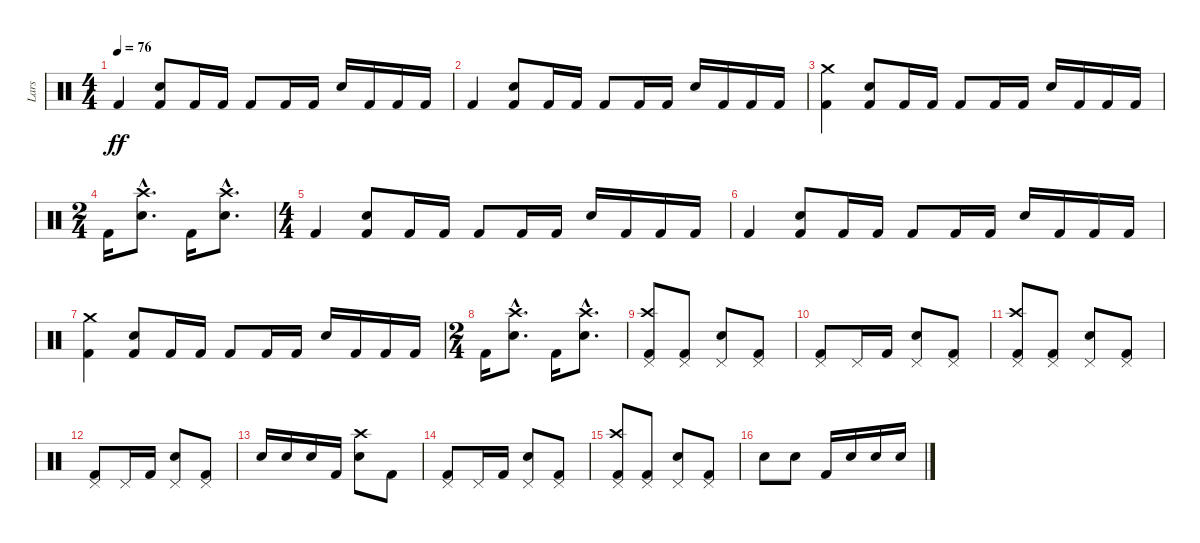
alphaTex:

\track ("Lars" "Lars") {instrument percussion}
\staff {score}
\articulation defaults
\ts (4 4)
\tempo 76
\clef neutral
\ks c "Kick (hit) 2".4{dy ff}
("Snare (hit) 2" "Kick (hit) 2").8 "Kick (hit) 2".16 "Kick (hit) 2".16 "Kick (hit) 2".8 "Kick (hit) 2".16 "Kick (hit) 2".16 "Snare (hit) 2".16 "Kick (hit) 2".16 "Kick (hit) 2".16 "Kick (hit) 2".16 |
"Kick (hit) 2".4 ("Snare (hit) 2" "Kick (hit) 2").8 "Kick (hit) 2".16 "Kick (hit) 2".16 "Kick (hit) 2".8 "Kick (hit) 2".16 "Kick (hit) 2".16 "Snare (hit) 2".16 "Kick (hit) 2".16 "Kick (hit) 2".16 "Kick (hit) 2".16 |
("Crash medium (hit)" "Kick (hit) 2").4 ("Snare (hit) 2" "Kick (hit) 2").8 "Kick (hit) 2".16 "Kick (hit) 2".16 "Kick (hit) 2".8 "Kick (hit) 2".16 "Kick (hit) 2".16 "Snare (hit) 2".16 "Kick (hit) 2".16 "Kick (hit) 2".16 "Kick (hit) 2".16 |
\ts (2 4)
"Kick (hit) 2".16 ("Crash high (hit)"{hac} "Snare (hit) 2"{hac}).8{d} "Kick (hit) 2".16 ("Crash high (hit)"{hac} "Snare (hit) 2"{hac}).8{d} |
\ts (4 4)
"Kick (hit) 2".4 ("Snare (hit) 2" "Kick (hit) 2").8 "Kick (hit) 2".16 "Kick (hit) 2".16 "Kick (hit) 2".8 "Kick (hit) 2".16 "Kick (hit) 2".16 "Snare (hit) 2".16 "Kick (hit) 2".16 "Kick (hit) 2".16 "Kick (hit) 2".16 |
"Kick (hit) 2".4 ("Snare (hit) 2" "Kick (hit) 2").8 "Kick (hit) 2".16 "Kick (hit) 2".16 "Kick (hit) 2".8 "Kick (hit) 2".16 "Kick (hit) 2".16 "Snare (hit) 2".16 "Kick (hit) 2".16 "Kick (hit) 2".16 "Kick (hit) 2".16 |
("Crash medium (hit)" "Kick (hit) 2").4 ("Snare (hit) 2" "Kick (hit) 2").8 "Kick (hit) 2".16 "Kick (hit) 2".16 "Kick (hit) 2".8 "Kick (hit) 2".16 "Kick (hit) 2".16 "Snare (hit) 2".16 "Kick (hit) 2".16 "Kick (hit) 2".16 "Kick (hit) 2".16 |
\ts (2 4)
"Kick (hit) 2".16 ("Crash high (hit)"{hac} "Snare (hit) 2"{hac}).8{d} "Kick (hit) 2".16 ("Crash high (hit)"{hac} "Snare (hit) 2"{hac}).8{d} |
("Pedal Hi-Hat (hit)" "Crash high (hit)" "Kick (hit) 2").8 ("Pedal Hi-Hat (hit)" "Kick (hit) 2").8 ("Pedal Hi-Hat (hit)" "Snare (hit) 2").8 ("Pedal Hi-Hat (hit)" "Kick (hit) 2").8 |
("Pedal Hi-Hat (hit)" "Kick (hit) 2").8 "Pedal Hi-Hat (hit)".16 "Kick (hit) 2".16 ("Pedal Hi-Hat (hit)" "Snare (hit) 2").8 ("Pedal Hi-Hat (hit)" "Kick (hit) 2").8 |
("Pedal Hi-Hat (hit)" "Crash high (hit)" "Kick (hit) 2").8 ("Pedal Hi-Hat (hit)" "Kick (hit) 2").8 ("Pedal Hi-Hat (hit)" "Snare (hit) 2").8 ("Pedal Hi-Hat (hit)" "Kick (hit) 2").8 |
("Pedal Hi-Hat (hit)" "Kick (hit) 2").8 "Pedal Hi-Hat (hit)".16 "Kick (hit) 2".16 ("Pedal Hi-Hat (hit)" "Snare (hit) 2").8 ("Pedal Hi-Hat (hit)" "Kick (hit) 2").8 |
"Snare (hit) 2".16 "Snare (hit) 2".16 "Snare (hit) 2".16 "Kick (hit) 2".16 ("Crash high (hit)" "Snare (hit) 2").8 "Kick (hit) 2".8 |
("Pedal Hi-Hat (hit)" "Kick (hit) 2").8 "Pedal Hi-Hat (hit)".16 "Kick (hit) 2".16 ("Pedal Hi-Hat (hit)" "Snare (hit) 2").8 ("Pedal Hi-Hat (hit)" "Kick (hit) 2").8 |
("Pedal Hi-Hat (hit)" "Crash high (hit)" "Kick (hit) 2").8 ("Pedal Hi-Hat (hit)" "Kick (hit) 2").8 ("Pedal Hi-Hat (hit)" "Snare (hit) 2").8 ("Pedal Hi-Hat (hit)" "Kick (hit) 2").8 |
"Snare (hit) 2".8 "Snare (hit) 2".8 "Kick (hit) 2".16 "Snare (hit) 2".16 "Snare (hit) 2".16 "Snare (hit) 2".16
